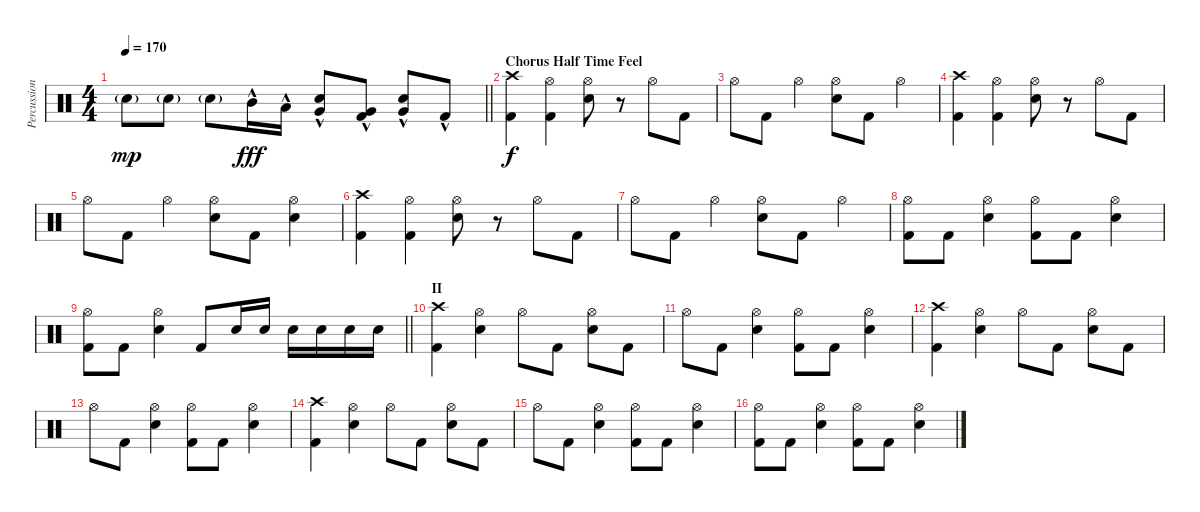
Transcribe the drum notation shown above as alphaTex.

\track ("Percussion" "Percussion") {instrument percussion}
\staff {score}
\articulation defaults
\ts (4 4)
\tempo 170
\clef neutral
\barLineRight lightlight
\ks c "Electric Snare (hit)"{g}.8{dy mp} "Electric Snare (hit)"{g}.8 "Electric Snare (hit)"{g}.8 "Mid Tom (hit)"{hac}.16{dy fff} "Low Tom (hit)"{hac}.16
("Very Low Tom (hit)"{hac} "Electric Snare (hit)").8 ("Very Low Tom (hit)"{hac} "Kick (hit) 2"{hac}).8 ("Very Low Tom (hit)"{hac} "Electric Snare (hit)").8 "Kick (hit) 2"{hac}.8 |
\section ("" "Chorus Half Time Feel")
("Crash high (hit)" "Kick (hit) 2").4{dy f} ("Hi-Hat (open)" "Kick (hit) 2").4 ("Hi-Hat (open)" "Electric Snare (hit)").8 r.8 "Hi-Hat (open)".8 "Kick (hit) 2".8 |
"Hi-Hat (open)".8 "Kick (hit) 2".8 "Hi-Hat (open)".4 ("Hi-Hat (open)" "Electric Snare (hit)").8 "Kick (hit) 2".8 "Hi-Hat (open)".4 |
("Crash high (hit)" "Kick (hit) 2").4 ("Hi-Hat (open)" "Kick (hit) 2").4 ("Hi-Hat (open)" "Electric Snare (hit)").8 r.8 "Hi-Hat (open)".8 "Kick (hit) 2".8 |
"Hi-Hat (open)".8 "Kick (hit) 2".8 "Hi-Hat (open)".4 ("Hi-Hat (open)" "Electric Snare (hit)").8 "Kick (hit) 2".8 ("Hi-Hat (open)" "Electric Snare (hit)").4 |
("Crash high (hit)" "Kick (hit) 2").4 ("Hi-Hat (open)" "Kick (hit) 2").4 ("Hi-Hat (open)" "Electric Snare (hit)").8 r.8 "Hi-Hat (open)".8 "Kick (hit) 2".8 |
"Hi-Hat (open)".8 "Kick (hit) 2".8 "Hi-Hat (open)".4 ("Hi-Hat (open)" "Electric Snare (hit)").8 "Kick (hit) 2".8 "Hi-Hat (open)".4 |
("Hi-Hat (open)" "Kick (hit) 2").8 "Kick (hit) 2".8 ("Hi-Hat (open)" "Electric Snare (hit)").4 ("Hi-Hat (open)" "Kick (hit) 2").8 "Kick (hit) 2".8 ("Hi-Hat (open)" "Electric Snare (hit)").4 |
\barLineRight lightlight
("Hi-Hat (open)" "Kick (hit) 2").8 "Kick (hit) 2".8 ("Hi-Hat (open)" "Electric Snare (hit)").4 "Kick (hit) 2".8 "Electric Snare (hit)".16 "Electric Snare (hit)".16 "Electric Snare (hit)".16 "Electric Snare (hit)".16 "Electric Snare (hit)".16 "Electric Snare (hit)".16 |
\section ("" "II")
("Crash high (hit)" "Kick (hit) 2").4 ("Hi-Hat (open)" "Electric Snare (hit)").4 "Hi-Hat (open)".8 "Kick (hit) 2".8 ("Hi-Hat (open)" "Electric Snare (hit)").8 "Kick (hit) 2".8 |
"Hi-Hat (open)".8 "Kick (hit) 2".8 ("Hi-Hat (open)" "Electric Snare (hit)").4 ("Hi-Hat (open)" "Kick (hit) 2").8 "Kick (hit) 2".8 ("Hi-Hat (open)" "Electric Snare (hit)").4 |
("Crash high (hit)" "Kick (hit) 2").4 ("Hi-Hat (open)" "Electric Snare (hit)").4 "Hi-Hat (open)".8 "Kick (hit) 2".8 ("Hi-Hat (open)" "Electric Snare (hit)").8 "Kick (hit) 2".8 |
"Hi-Hat (open)".8 "Kick (hit) 2".8 ("Hi-Hat (open)" "Electric Snare (hit)").4 ("Hi-Hat (open)" "Kick (hit) 2").8 "Kick (hit) 2".8 ("Hi-Hat (open)" "Electric Snare (hit)").4 |
("Crash high (hit)" "Kick (hit) 2").4 ("Hi-Hat (open)" "Electric Snare (hit)").4 "Hi-Hat (open)".8 "Kick (hit) 2".8 ("Hi-Hat (open)" "Electric Snare (hit)").8 "Kick (hit) 2".8 |
"Hi-Hat (open)".8 "Kick (hit) 2".8 ("Hi-Hat (open)" "Electric Snare (hit)").4 ("Hi-Hat (open)" "Kick (hit) 2").8 "Kick (hit) 2".8 ("Hi-Hat (open)" "Electric Snare (hit)").4 |
("Hi-Hat (open)" "Kick (hit) 2").8 "Kick (hit) 2".8 ("Hi-Hat (open)" "Electric Snare (hit)").4 ("Hi-Hat (open)" "Kick (hit) 2").8 "Kick (hit) 2".8 ("Hi-Hat (open)" "Electric Snare (hit)").4
